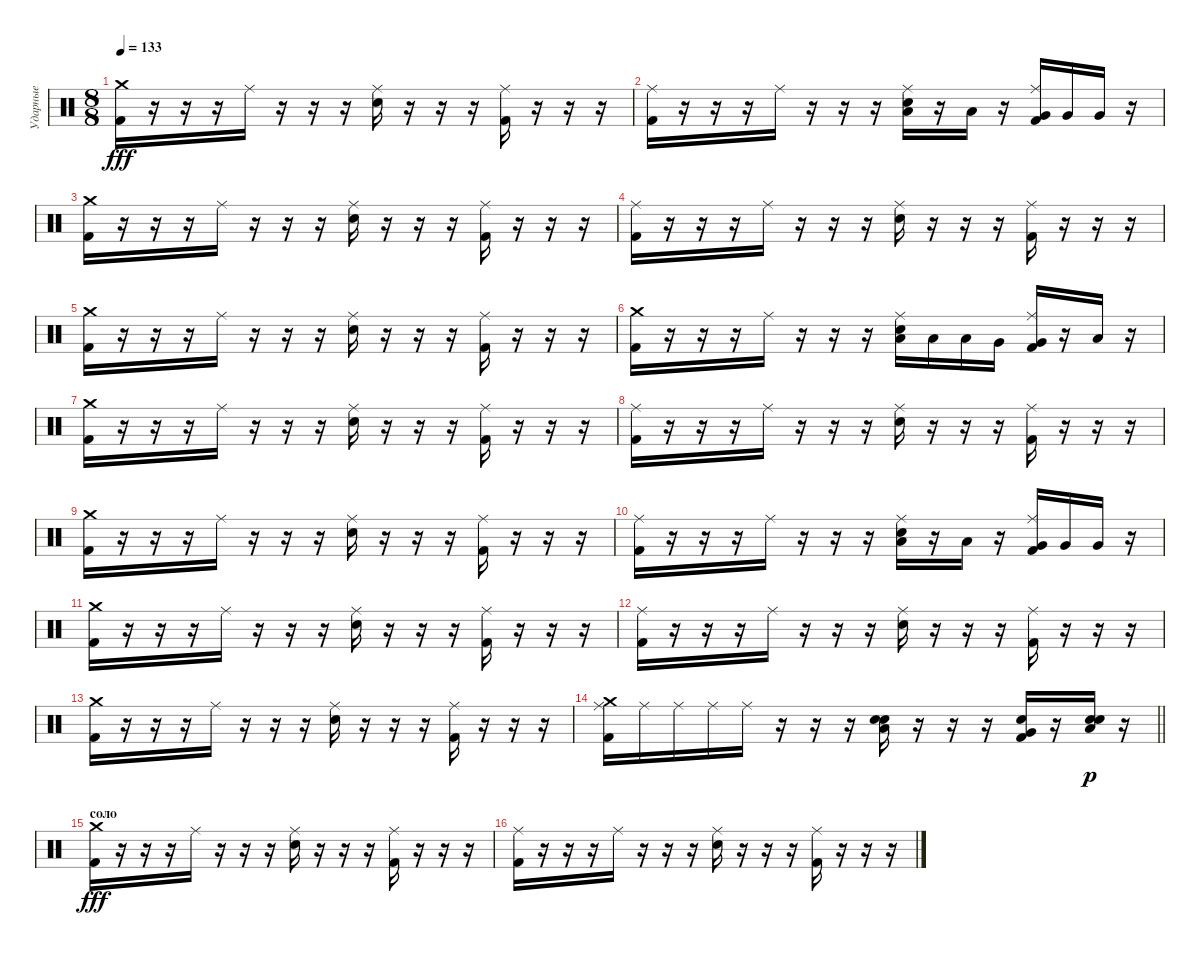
\track ("Ударные" "Ударные") {instrument percussion}
\staff {score}
\articulation defaults
\ts (8 8)
\tempo 133
\clef neutral
\ks c
("Crash medium (hit)" "Kick (hit) 2").16{dy fff} r.16 r.16 r.16 "Ride (middle)".16 r.16 r.16 r.16 ("Ride (middle)" "Snare (hit) 2").16 r.16 r.16 r.16 ("Ride (middle)" "Kick (hit) 2").16 r.16 r.16 r.16 |
("Ride (middle)" "Kick (hit) 2").16 r.16 r.16 r.16 "Ride (middle)".16 r.16 r.16 r.16 ("Ride (middle)" "Low Tom (hit)" "Snare (hit) 2").16 r.16 "Low Tom (hit)".16 r.16 ("Ride (middle)" "Very Low Tom (hit)" "Kick (hit) 2").16 "Very Low Tom (hit)".16 "Very Low Tom (hit)".16 r.16 |
("Crash medium (hit)" "Kick (hit) 2").16 r.16 r.16 r.16 "Ride (middle)".16 r.16 r.16 r.16 ("Ride (middle)" "Snare (hit) 2").16 r.16 r.16 r.16 ("Ride (middle)" "Kick (hit) 2").16 r.16 r.16 r.16 |
("Ride (middle)" "Kick (hit) 2").16 r.16 r.16 r.16 "Ride (middle)".16 r.16 r.16 r.16 ("Ride (middle)" "Snare (hit) 2").16 r.16 r.16 r.16 ("Ride (middle)" "Kick (hit) 2").16 r.16 r.16 r.16 |
("Crash medium (hit)" "Kick (hit) 2").16 r.16 r.16 r.16 "Ride (middle)".16 r.16 r.16 r.16 ("Ride (middle)" "Snare (hit) 2").16 r.16 r.16 r.16 ("Ride (middle)" "Kick (hit) 2").16 r.16 r.16 r.16 |
("Crash medium (hit)" "Kick (hit) 2").16 r.16 r.16 r.16 "Ride (middle)".16 r.16 r.16 r.16 ("Ride (middle)" "Low Tom (hit)" "Snare (hit) 2").16 "Low Tom (hit)".16 "Low Tom (hit)".16 "Very Low Tom (hit)".16 ("Ride (middle)" "Very Low Tom (hit)" "Kick (hit) 2").16 r.16 "Low Floor Tom (hit)".16 r.16 |
("Crash medium (hit)" "Kick (hit) 2").16 r.16 r.16 r.16 "Ride (middle)".16 r.16 r.16 r.16 ("Ride (middle)" "Snare (hit) 2").16 r.16 r.16 r.16 ("Ride (middle)" "Kick (hit) 2").16 r.16 r.16 r.16 |
("Ride (middle)" "Kick (hit) 2").16 r.16 r.16 r.16 "Ride (middle)".16 r.16 r.16 r.16 ("Ride (middle)" "Snare (hit) 2").16 r.16 r.16 r.16 ("Ride (middle)" "Kick (hit) 2").16 r.16 r.16 r.16 |
("Crash medium (hit)" "Kick (hit) 2").16 r.16 r.16 r.16 "Ride (middle)".16 r.16 r.16 r.16 ("Ride (middle)" "Snare (hit) 2").16 r.16 r.16 r.16 ("Ride (middle)" "Kick (hit) 2").16 r.16 r.16 r.16 |
("Ride (middle)" "Kick (hit) 2").16 r.16 r.16 r.16 "Ride (middle)".16 r.16 r.16 r.16 ("Ride (middle)" "Low Tom (hit)" "Snare (hit) 2").16 r.16 "Low Tom (hit)".16 r.16 ("Ride (middle)" "Very Low Tom (hit)" "Kick (hit) 2").16 "Very Low Tom (hit)".16 "Very Low Tom (hit)".16 r.16 |
("Crash medium (hit)" "Kick (hit) 2").16 r.16 r.16 r.16 "Ride (middle)".16 r.16 r.16 r.16 ("Ride (middle)" "Snare (hit) 2").16 r.16 r.16 r.16 ("Ride (middle)" "Kick (hit) 2").16 r.16 r.16 r.16 |
("Ride (middle)" "Kick (hit) 2").16 r.16 r.16 r.16 "Ride (middle)".16 r.16 r.16 r.16 ("Ride (middle)" "Snare (hit) 2").16 r.16 r.16 r.16 ("Ride (middle)" "Kick (hit) 2").16 r.16 r.16 r.16 |
("Crash medium (hit)" "Kick (hit) 2").16 r.16 r.16 r.16 "Ride (middle)".16 r.16 r.16 r.16 ("Ride (middle)" "Snare (hit) 2").16 r.16 r.16 r.16 ("Ride (middle)" "Kick (hit) 2").16 r.16 r.16 r.16 |
\barLineRight lightlight
("Ride (middle)" "Crash medium (hit)" "Kick (hit) 2").16 "Ride (middle)".16 "Ride (middle)".16 "Ride (middle)".16 "Ride (middle)".16 r.16 r.16 r.16 ("Electric Snare (hit)" "Low Tom (hit)" "Snare (hit) 2").16 r.16 r.16 r.16 ("Electric Snare (hit)" "Very Low Tom (hit)" "Kick (hit) 2").16 r.16 ("Electric Snare (hit)" "Low Floor Tom (hit)" "Snare (hit) 2").16{dy p} r.16 |
\section ("" "соло")
("Crash medium (hit)" "Kick (hit) 2").16{dy fff} r.16 r.16 r.16 "Ride (middle)".16 r.16 r.16 r.16 ("Ride (middle)" "Snare (hit) 2").16 r.16 r.16 r.16 ("Ride (middle)" "Kick (hit) 2").16 r.16 r.16 r.16 |
("Ride (middle)" "Kick (hit) 2").16 r.16 r.16 r.16 "Ride (middle)".16 r.16 r.16 r.16 ("Ride (middle)" "Snare (hit) 2").16 r.16 r.16 r.16 ("Ride (middle)" "Kick (hit) 2").16 r.16 r.16 r.16
